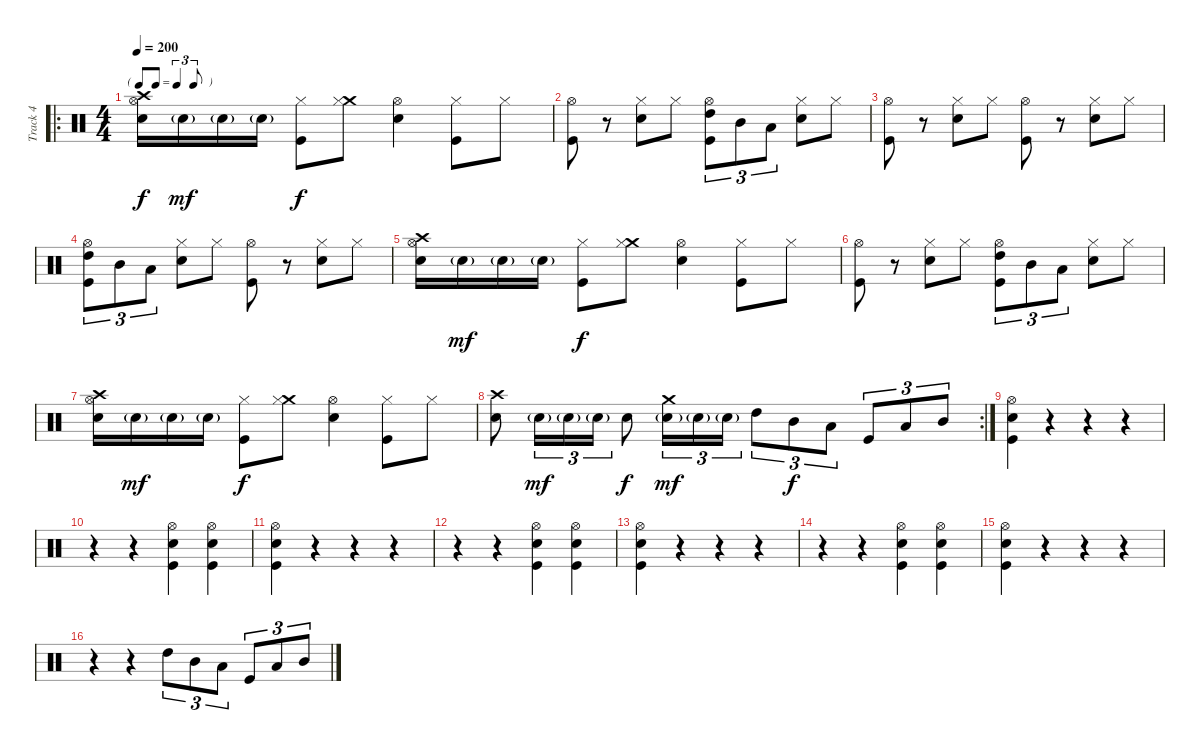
\track ("Track 4" "Track 4") {instrument percussion}
\staff {score}
\articulation defaults
\ro
\ts (4 4)
\tf triplet8th
\tempo 200
\clef neutral
\ks c
("Crash high (hit)" "Hi-Hat (open)" "Electric Snare (hit)").16{dy f} "Electric Snare (hit)"{g}.16{dy mf} "Electric Snare (hit)"{g}.16 "Electric Snare (hit)"{g}.16 ("Hi-Hat (closed)" "Kick (hit)").8{dy f} ("Crash medium (hit)" "Hi-Hat (closed)").8 ("Hi-Hat (open)" "Electric Snare (hit)").4 ("Hi-Hat (closed)" "Kick (hit)").8 "Hi-Hat (closed)".8 |
("Hi-Hat (open)" "Kick (hit)").8 r.8 ("Hi-Hat (closed)" "Electric Snare (hit)").8 "Hi-Hat (closed)".8 ("High Tom (hit)" "Hi-Hat (open)" "Kick (hit)").8{tu (3 2)} "Mid Tom (hit)".8{tu (3 2)} "Low Tom (hit)".8{tu (3 2)} ("Hi-Hat (closed)" "Electric Snare (hit)").8 "Hi-Hat (closed)".8 |
("Hi-Hat (open)" "Kick (hit)").8 r.8 ("Hi-Hat (closed)" "Electric Snare (hit)").8 "Hi-Hat (closed)".8 ("Hi-Hat (open)" "Kick (hit)").8 r.8 ("Hi-Hat (closed)" "Electric Snare (hit)").8 "Hi-Hat (closed)".8 |
("High Tom (hit)" "Hi-Hat (open)" "Kick (hit)").8{tu (3 2)} "Mid Tom (hit)".8{tu (3 2)} "Low Tom (hit)".8{tu (3 2)} ("Hi-Hat (closed)" "Electric Snare (hit)").8 "Hi-Hat (closed)".8 ("Hi-Hat (open)" "Kick (hit)").8 r.8 ("Hi-Hat (closed)" "Electric Snare (hit)").8 "Hi-Hat (closed)".8 |
("Crash high (hit)" "Hi-Hat (open)" "Electric Snare (hit)").16 "Electric Snare (hit)"{g}.16{dy mf} "Electric Snare (hit)"{g}.16 "Electric Snare (hit)"{g}.16 ("Hi-Hat (closed)" "Kick (hit)").8{dy f} ("Crash medium (hit)" "Hi-Hat (closed)").8 ("Hi-Hat (open)" "Electric Snare (hit)").4 ("Hi-Hat (closed)" "Kick (hit)").8 "Hi-Hat (closed)".8 |
("Hi-Hat (open)" "Kick (hit)").8 r.8 ("Hi-Hat (closed)" "Electric Snare (hit)").8 "Hi-Hat (closed)".8 ("High Tom (hit)" "Hi-Hat (open)" "Kick (hit)").8{tu (3 2)} "Mid Tom (hit)".8{tu (3 2)} "Low Tom (hit)".8{tu (3 2)} ("Hi-Hat (closed)" "Electric Snare (hit)").8 "Hi-Hat (closed)".8 |
("Crash high (hit)" "Hi-Hat (open)" "Electric Snare (hit)").16 "Electric Snare (hit)"{g}.16{dy mf} "Electric Snare (hit)"{g}.16 "Electric Snare (hit)"{g}.16 ("Hi-Hat (closed)" "Kick (hit)").8{dy f} ("Crash medium (hit)" "Hi-Hat (closed)").8 ("Hi-Hat (open)" "Electric Snare (hit)").4 ("Hi-Hat (closed)" "Kick (hit)").8 "Hi-Hat (closed)".8 |
\rc 2
("Crash high (hit)" "Electric Snare (hit)").8 "Electric Snare (hit)"{g}.16{tu (3 2) dy mf} "Electric Snare (hit)"{g}.16{tu (3 2)} "Electric Snare (hit)"{g}.16{tu (3 2)} "Electric Snare (hit)".8{dy f} ("Crash medium (hit)" "Electric Snare (hit)"{g}).16{tu (3 2) dy mf} "Electric Snare (hit)"{g}.16{tu (3 2)} "Electric Snare (hit)"{g}.16{tu (3 2)} "High Tom (hit)".8{tu (3 2)} "Mid Tom (hit)".8{tu (3 2) dy f} "Low Tom (hit)".8{tu (3 2)} "Kick (hit)".8{tu (3 2)} "Low Tom (hit)".8{tu (3 2)} "Mid Tom (hit)".8{tu (3 2)} |
("Hi-Hat (open)" "Electric Snare (hit)" "Kick (hit)").4 r.4 r.4 r.4 |
r.4 r.4 ("Hi-Hat (open)" "Electric Snare (hit)" "Kick (hit)").4 ("Hi-Hat (open)" "Electric Snare (hit)" "Kick (hit)").4 |
("Hi-Hat (open)" "Electric Snare (hit)" "Kick (hit)").4 r.4 r.4 r.4 |
r.4 r.4 ("Hi-Hat (open)" "Electric Snare (hit)" "Kick (hit)").4 ("Hi-Hat (open)" "Electric Snare (hit)" "Kick (hit)").4 |
("Hi-Hat (open)" "Electric Snare (hit)" "Kick (hit)").4 r.4 r.4 r.4 |
r.4 r.4 ("Hi-Hat (open)" "Electric Snare (hit)" "Kick (hit)").4 ("Hi-Hat (open)" "Electric Snare (hit)" "Kick (hit)").4 |
("Hi-Hat (open)" "Electric Snare (hit)" "Kick (hit)").4 r.4 r.4 r.4 |
r.4 r.4 "High Tom (hit)".8{tu (3 2)} "Mid Tom (hit)".8{tu (3 2)} "Low Tom (hit)".8{tu (3 2)} "Kick (hit)".8{tu (3 2)} "Low Tom (hit)".8{tu (3 2)} "Mid Tom (hit)".8{tu (3 2)}
